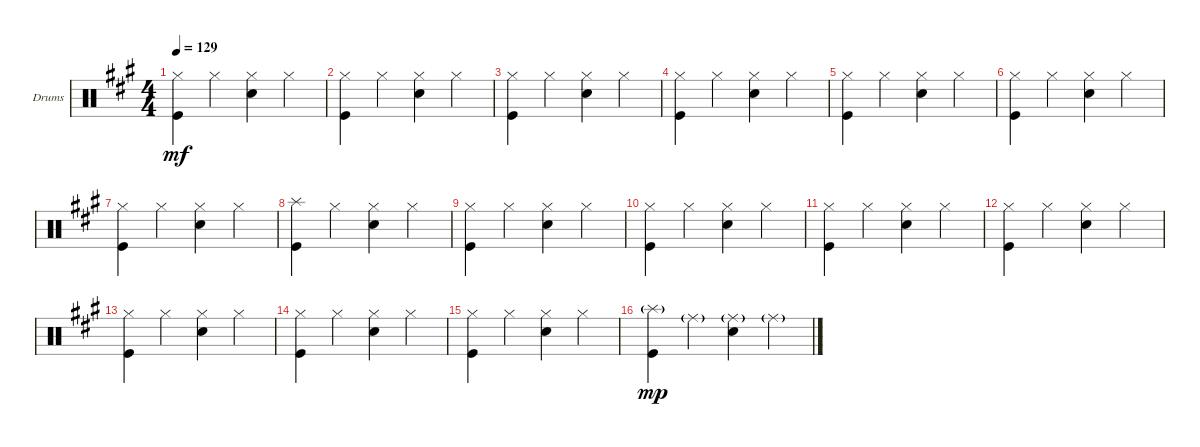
\defaultSystemsLayout 4
\bracketExtendMode groupsimilarinstruments
\firstSystemTrackNameOrientation horizontal
\otherSystemsTrackNameOrientation horizontal
\track ("Drumkit" "Drums") {instrument percussion}
\staff {score}
\articulation defaults
\ts (4 4)
\tempo 129
\clef neutral
\ks f#minor
("Kick (hit)" "Hi-Hat (closed)").4{dy mf} "Hi-Hat (closed)".4 ("Snare (hit) 2" "Hi-Hat (closed)").4 "Hi-Hat (closed)".4 |
("Kick (hit)" "Hi-Hat (closed)").4 "Hi-Hat (closed)".4 ("Snare (hit) 2" "Hi-Hat (closed)").4 "Hi-Hat (closed)".4 |
("Kick (hit)" "Hi-Hat (closed)").4 "Hi-Hat (closed)".4 ("Snare (hit) 2" "Hi-Hat (closed)").4 "Hi-Hat (closed)".4 |
("Kick (hit)" "Hi-Hat (closed)").4 "Hi-Hat (closed)".4 ("Snare (hit) 2" "Hi-Hat (closed)").4 "Hi-Hat (closed)".4 |
("Kick (hit)" "Hi-Hat (closed)").4 "Hi-Hat (closed)".4 ("Snare (hit) 2" "Hi-Hat (closed)").4 "Hi-Hat (closed)".4 |
("Kick (hit)" "Hi-Hat (closed)").4 "Hi-Hat (closed)".4 ("Snare (hit) 2" "Hi-Hat (closed)").4 "Hi-Hat (closed)".4 |
("Kick (hit)" "Hi-Hat (closed)").4 "Hi-Hat (closed)".4 ("Snare (hit) 2" "Hi-Hat (closed)").4 "Hi-Hat (closed)".4 |
("Kick (hit)" "Splash (hit)").4 "Hi-Hat (closed)".4 ("Snare (hit) 2" "Hi-Hat (closed)").4 "Hi-Hat (closed)".4 |
("Kick (hit)" "Hi-Hat (closed)").4 "Hi-Hat (closed)".4 ("Snare (hit) 2" "Hi-Hat (closed)").4 "Hi-Hat (closed)".4 |
("Kick (hit)" "Hi-Hat (closed)").4 "Hi-Hat (closed)".4 ("Snare (hit) 2" "Hi-Hat (closed)").4 "Hi-Hat (closed)".4 |
("Kick (hit)" "Hi-Hat (closed)").4 "Hi-Hat (closed)".4 ("Snare (hit) 2" "Hi-Hat (closed)").4 "Hi-Hat (closed)".4 |
("Kick (hit)" "Hi-Hat (closed)").4 "Hi-Hat (closed)".4 ("Snare (hit) 2" "Hi-Hat (closed)").4 "Hi-Hat (closed)".4 |
("Kick (hit)" "Hi-Hat (closed)").4 "Hi-Hat (closed)".4 ("Snare (hit) 2" "Hi-Hat (closed)").4 "Hi-Hat (closed)".4 |
("Kick (hit)" "Hi-Hat (closed)").4 "Hi-Hat (closed)".4 ("Snare (hit) 2" "Hi-Hat (closed)").4 "Hi-Hat (closed)".4 |
("Kick (hit)" "Hi-Hat (closed)").4 "Hi-Hat (closed)".4 ("Snare (hit) 2" "Hi-Hat (closed)").4 "Hi-Hat (closed)".4 |
("Kick (hit)" "Splash (hit)"{g}).4{dy mp} "Ride (middle)"{g}.4 ("Snare (hit) 2" "Ride (middle)"{g}).4 "Ride (middle)"{g}.4
